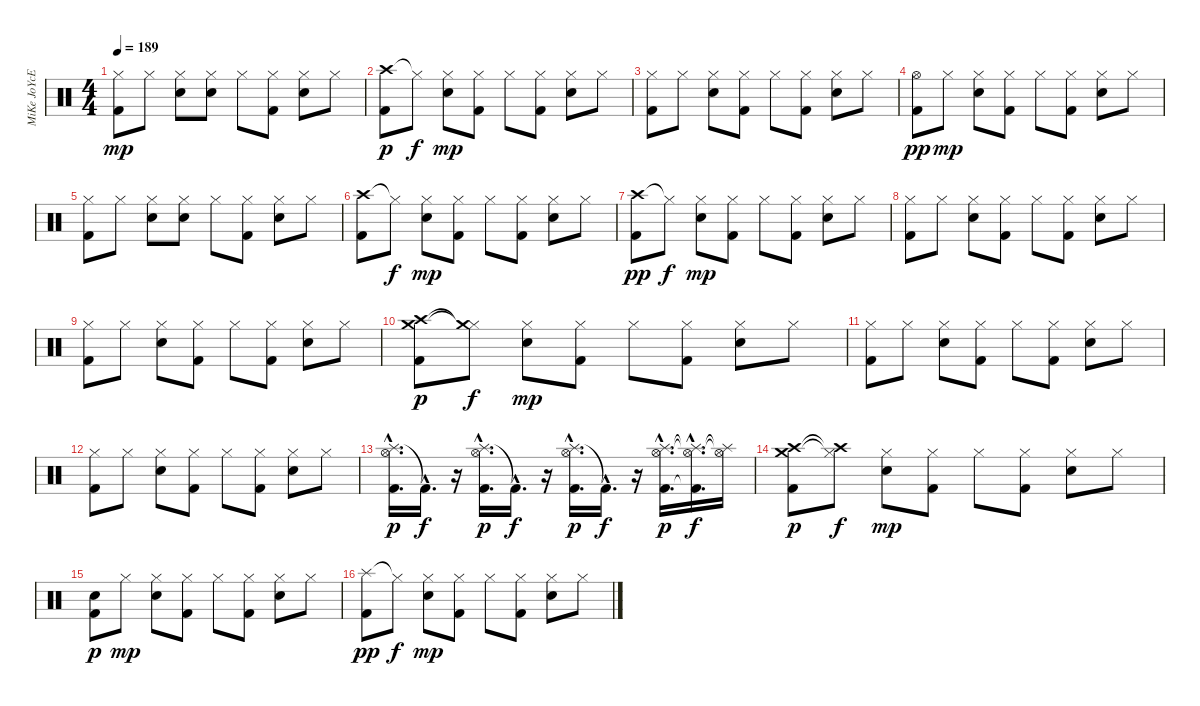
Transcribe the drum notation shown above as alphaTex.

\track ("MiKe JoYcE" "MiKe JoYcE") {instrument percussion}
\staff {score}
\articulation defaults
\ts (4 4)
\tempo 189
\clef neutral
\ks c
("Hi-Hat (closed)" "Kick (hit) 2").8{dy mp} "Hi-Hat (closed)".8 ("Hi-Hat (closed)" "Electric Snare (hit)").8 ("Hi-Hat (closed)" "Electric Snare (hit)").8 "Hi-Hat (closed)".8 ("Hi-Hat (closed)" "Kick (hit) 2").8 ("Hi-Hat (closed)" "Electric Snare (hit)").8 "Hi-Hat (closed)".8 |
("Crash high (hit)" "Kick (hit) 2").8{dy p} "Hi-Hat (closed)"{t}.8{dy f} ("Hi-Hat (closed)" "Electric Snare (hit)").8{dy mp} ("Hi-Hat (closed)" "Kick (hit) 2").8 "Hi-Hat (closed)".8 ("Hi-Hat (closed)" "Kick (hit) 2").8 ("Hi-Hat (closed)" "Electric Snare (hit)").8 "Hi-Hat (closed)".8 |
("Hi-Hat (closed)" "Kick (hit) 2").8 "Hi-Hat (closed)".8 ("Hi-Hat (closed)" "Electric Snare (hit)").8 ("Hi-Hat (closed)" "Kick (hit) 2").8 "Hi-Hat (closed)".8 ("Hi-Hat (closed)" "Kick (hit) 2").8 ("Hi-Hat (closed)" "Electric Snare (hit)").8 "Hi-Hat (closed)".8 |
("Hi-Hat (open)" "Kick (hit) 2").8{dy pp} "Hi-Hat (closed)".8{dy mp} ("Hi-Hat (closed)" "Electric Snare (hit)").8 ("Hi-Hat (closed)" "Kick (hit) 2").8 "Hi-Hat (closed)".8 ("Hi-Hat (closed)" "Kick (hit) 2").8 ("Hi-Hat (closed)" "Electric Snare (hit)").8 "Hi-Hat (closed)".8 |
("Hi-Hat (closed)" "Kick (hit) 2").8 "Hi-Hat (closed)".8 ("Hi-Hat (closed)" "Electric Snare (hit)").8 ("Hi-Hat (closed)" "Electric Snare (hit)").8 "Hi-Hat (closed)".8 ("Hi-Hat (closed)" "Kick (hit) 2").8 ("Hi-Hat (closed)" "Electric Snare (hit)").8 "Hi-Hat (closed)".8 |
("Crash high (hit)" "Kick (hit) 2").8 "Hi-Hat (closed)"{t}.8{dy f} ("Hi-Hat (closed)" "Electric Snare (hit)").8{dy mp} ("Hi-Hat (closed)" "Kick (hit) 2").8 "Hi-Hat (closed)".8 ("Hi-Hat (closed)" "Kick (hit) 2").8 ("Hi-Hat (closed)" "Electric Snare (hit)").8 "Hi-Hat (closed)".8 |
("Crash high (hit)" "Kick (hit) 2").8{dy pp} "Hi-Hat (closed)"{t}.8{dy f} ("Hi-Hat (closed)" "Electric Snare (hit)").8{dy mp} ("Hi-Hat (closed)" "Kick (hit) 2").8 "Hi-Hat (closed)".8 ("Hi-Hat (closed)" "Kick (hit) 2").8 ("Hi-Hat (closed)" "Electric Snare (hit)").8 "Hi-Hat (closed)".8 |
("Hi-Hat (closed)" "Kick (hit) 2").8 "Hi-Hat (closed)".8 ("Hi-Hat (closed)" "Electric Snare (hit)").8 ("Hi-Hat (closed)" "Kick (hit) 2").8 "Hi-Hat (closed)".8 ("Hi-Hat (closed)" "Kick (hit) 2").8 ("Hi-Hat (closed)" "Electric Snare (hit)").8 "Hi-Hat (closed)".8 |
("Hi-Hat (closed)" "Kick (hit) 2").8 "Hi-Hat (closed)".8 ("Hi-Hat (closed)" "Electric Snare (hit)").8 ("Hi-Hat (closed)" "Kick (hit) 2").8 "Hi-Hat (closed)".8 ("Hi-Hat (closed)" "Kick (hit) 2").8 ("Hi-Hat (closed)" "Electric Snare (hit)").8 "Hi-Hat (closed)".8 |
("Crash high (hit)" "Crash medium (hit)" "Kick (hit) 2").8{dy p} ("Hi-Hat (closed)"{t} "Crash medium (hit)"{t}).8{dy f} ("Hi-Hat (closed)" "Electric Snare (hit)").8{dy mp} ("Hi-Hat (closed)" "Kick (hit) 2").8 "Hi-Hat (closed)".8 ("Hi-Hat (closed)" "Kick (hit) 2").8 ("Hi-Hat (closed)" "Electric Snare (hit)").8 "Hi-Hat (closed)".8 |
("Hi-Hat (closed)" "Kick (hit) 2").8 "Hi-Hat (closed)".8 ("Hi-Hat (closed)" "Electric Snare (hit)").8 ("Hi-Hat (closed)" "Kick (hit) 2").8 "Hi-Hat (closed)".8 ("Hi-Hat (closed)" "Kick (hit) 2").8 ("Hi-Hat (closed)" "Electric Snare (hit)").8 "Hi-Hat (closed)".8 |
("Hi-Hat (closed)" "Kick (hit) 2").8 "Hi-Hat (closed)".8 ("Hi-Hat (closed)" "Electric Snare (hit)").8 ("Hi-Hat (closed)" "Kick (hit) 2").8 "Hi-Hat (closed)".8 ("Hi-Hat (closed)" "Kick (hit) 2").8 ("Hi-Hat (closed)" "Electric Snare (hit)").8 "Hi-Hat (closed)".8 |
("Splash (hit)"{hac} "Hi-Hat (open)"{hac} "Kick (hit) 2"{hac}).16{d dy p} "Kick (hit) 2"{hac t}.16{d dy f} r.16 ("Splash (hit)"{hac} "Hi-Hat (open)"{hac} "Kick (hit) 2"{hac}).16{d dy p} "Kick (hit) 2"{hac t}.16{d dy f} r.16 ("Splash (hit)"{hac} "Hi-Hat (open)"{hac} "Kick (hit) 2"{hac}).16{d dy p} "Kick (hit) 2"{hac t}.16{d dy f} r.16 ("Splash (hit)"{hac} "Hi-Hat (open)"{hac} "Kick (hit) 2"{hac}).16{d dy p} ("Splash (hit)"{hac t} "Hi-Hat (open)"{hac t} "Kick (hit) 2"{hac t}).16{d dy f} ("Splash (hit)"{t} "Hi-Hat (open)"{t}).16 |
("Crash medium (hit)" "Crash high (hit)" "Kick (hit) 2").8{dy p} ("Hi-Hat (closed)"{t} "Crash high (hit)"{t}).8{dy f} ("Hi-Hat (closed)" "Electric Snare (hit)").8{dy mp} ("Hi-Hat (closed)" "Kick (hit) 2").8 "Hi-Hat (closed)".8 ("Hi-Hat (closed)" "Kick (hit) 2").8 ("Hi-Hat (closed)" "Electric Snare (hit)").8 "Hi-Hat (closed)".8 |
("Metronome (bell)" "Kick (hit) 2").8{dy p} "Hi-Hat (closed)".8{dy mp} ("Hi-Hat (closed)" "Electric Snare (hit)").8 ("Hi-Hat (closed)" "Kick (hit) 2").8 "Hi-Hat (closed)".8 ("Hi-Hat (closed)" "Kick (hit) 2").8 ("Hi-Hat (closed)" "Electric Snare (hit)").8 "Hi-Hat (closed)".8 |
("Splash (hit)" "Kick (hit) 2").8{dy pp} "Hi-Hat (closed)"{t}.8{dy f} ("Hi-Hat (closed)" "Electric Snare (hit)").8{dy mp} ("Hi-Hat (closed)" "Kick (hit) 2").8 "Hi-Hat (closed)".8 ("Hi-Hat (closed)" "Kick (hit) 2").8 ("Hi-Hat (closed)" "Electric Snare (hit)").8 "Hi-Hat (closed)".8
